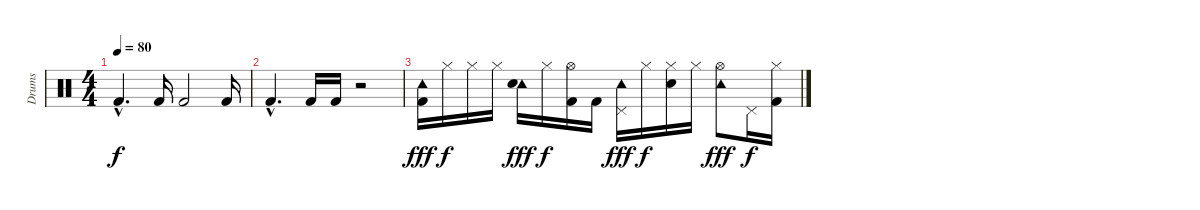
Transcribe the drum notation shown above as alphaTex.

\track ("Drums" "Drums") {instrument percussion}
\staff {score}
\articulation defaults
\ts (4 4)
\tempo 80
\clef neutral
\ks c "Kick (hit) 2"{hac}.4{d dy f} "Kick (hit) 2".16 "Kick (hit) 2".2 "Kick (hit) 2".16
|
"Kick (hit) 2"{hac}.4{d} "Kick (hit) 2".16 "Kick (hit) 2".16 r.2 |
("Tambourine (hit)" "Kick (hit) 2").16{dy fff} "Hi-Hat (closed)".16{dy f} "Hi-Hat (closed)".16 "Hi-Hat (closed)".16 ("Tambourine (hit)" "Electric Snare (hit)").16{dy fff} "Hi-Hat (closed)".16{dy f} ("Hi-Hat (open)" "Kick (hit) 2").16 "Kick (hit) 2".16 ("Pedal Hi-Hat (hit)" "Tambourine (hit)").16{dy fff} "Hi-Hat (closed)".16{dy f} ("Hi-Hat (closed)" "Electric Snare (hit)").16 "Hi-Hat (closed)".16 ("Hi-Hat (open)" "Tambourine (hit)").8{dy fff} "Pedal Hi-Hat (hit)".16{dy f} ("Hi-Hat (closed)" "Kick (hit) 2").16
